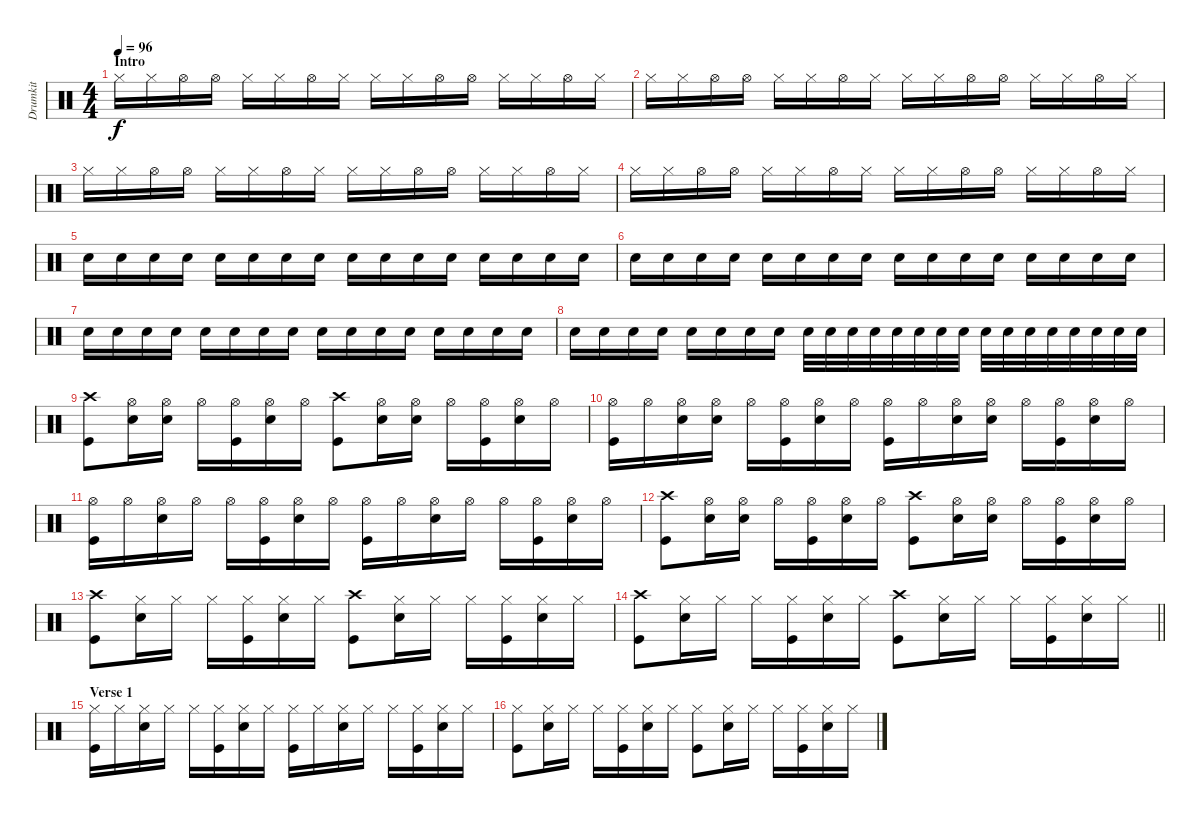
\track ("Drumkit" "Drumkit") {instrument percussion}
\staff {score}
\articulation defaults
\ts (4 4)
\section ("" "Intro")
\tempo 96
\clef neutral
\ks c "Hi-Hat (closed)".16{dy f} "Hi-Hat (closed)".16 "Hi-Hat (open)".16 "Hi-Hat (open)".16 "Hi-Hat (closed)".16 "Hi-Hat (closed)".16 "Hi-Hat (open)".16 "Hi-Hat (closed)".16 "Hi-Hat (closed)".16 "Hi-Hat (closed)".16 "Hi-Hat (open)".16 "Hi-Hat (open)".16 "Hi-Hat (closed)".16 "Hi-Hat (closed)".16 "Hi-Hat (open)".16 "Hi-Hat (closed)".16
|
"Hi-Hat (closed)".16 "Hi-Hat (closed)".16 "Hi-Hat (open)".16 "Hi-Hat (open)".16 "Hi-Hat (closed)".16 "Hi-Hat (closed)".16 "Hi-Hat (open)".16 "Hi-Hat (closed)".16 "Hi-Hat (closed)".16 "Hi-Hat (closed)".16 "Hi-Hat (open)".16 "Hi-Hat (open)".16 "Hi-Hat (closed)".16 "Hi-Hat (closed)".16 "Hi-Hat (open)".16 "Hi-Hat (closed)".16 |
"Hi-Hat (closed)".16 "Hi-Hat (closed)".16 "Hi-Hat (open)".16 "Hi-Hat (open)".16 "Hi-Hat (closed)".16 "Hi-Hat (closed)".16 "Hi-Hat (open)".16 "Hi-Hat (closed)".16 "Hi-Hat (closed)".16 "Hi-Hat (closed)".16 "Hi-Hat (open)".16 "Hi-Hat (open)".16 "Hi-Hat (closed)".16 "Hi-Hat (closed)".16 "Hi-Hat (open)".16 "Hi-Hat (closed)".16 |
"Hi-Hat (closed)".16 "Hi-Hat (closed)".16 "Hi-Hat (open)".16 "Hi-Hat (open)".16 "Hi-Hat (closed)".16 "Hi-Hat (closed)".16 "Hi-Hat (open)".16 "Hi-Hat (closed)".16 "Hi-Hat (closed)".16 "Hi-Hat (closed)".16 "Hi-Hat (open)".16 "Hi-Hat (open)".16 "Hi-Hat (closed)".16 "Hi-Hat (closed)".16 "Hi-Hat (open)".16 "Hi-Hat (closed)".16 |
"Snare (hit) 2".16 "Snare (hit) 2".16 "Snare (hit) 2".16 "Snare (hit) 2".16 "Snare (hit) 2".16 "Snare (hit) 2".16 "Snare (hit) 2".16 "Snare (hit) 2".16 "Snare (hit) 2".16 "Snare (hit) 2".16 "Snare (hit) 2".16 "Snare (hit) 2".16 "Snare (hit) 2".16 "Snare (hit) 2".16 "Snare (hit) 2".16 "Snare (hit) 2".16 |
"Snare (hit) 2".16 "Snare (hit) 2".16 "Snare (hit) 2".16 "Snare (hit) 2".16 "Snare (hit) 2".16 "Snare (hit) 2".16 "Snare (hit) 2".16 "Snare (hit) 2".16 "Snare (hit) 2".16 "Snare (hit) 2".16 "Snare (hit) 2".16 "Snare (hit) 2".16 "Snare (hit) 2".16 "Snare (hit) 2".16 "Snare (hit) 2".16 "Snare (hit) 2".16 |
"Snare (hit) 2".16 "Snare (hit) 2".16 "Snare (hit) 2".16 "Snare (hit) 2".16 "Snare (hit) 2".16 "Snare (hit) 2".16 "Snare (hit) 2".16 "Snare (hit) 2".16 "Snare (hit) 2".16 "Snare (hit) 2".16 "Snare (hit) 2".16 "Snare (hit) 2".16 "Snare (hit) 2".16 "Snare (hit) 2".16 "Snare (hit) 2".16 "Snare (hit) 2".16 |
"Snare (hit) 2".16 "Snare (hit) 2".16 "Snare (hit) 2".16 "Snare (hit) 2".16 "Snare (hit) 2".16 "Snare (hit) 2".16 "Snare (hit) 2".16 "Snare (hit) 2".16 "Snare (hit) 2".32 "Snare (hit) 2".32 "Snare (hit) 2".32 "Snare (hit) 2".32 "Snare (hit) 2".32 "Snare (hit) 2".32 "Snare (hit) 2".32 "Snare (hit) 2".32 "Snare (hit) 2".32 "Snare (hit) 2".32 "Snare (hit) 2".32 "Snare (hit) 2".32 "Snare (hit) 2".32 "Snare (hit) 2".32 "Snare (hit) 2".32 "Snare (hit) 2".32 |
("Crash high (hit)" "Kick (hit)").8 ("Hi-Hat (open)" "Snare (hit) 2").16 ("Hi-Hat (open)" "Snare (hit) 2").16 "Hi-Hat (open)".16 ("Hi-Hat (open)" "Kick (hit)").16 ("Hi-Hat (open)" "Snare (hit) 2").16 "Hi-Hat (open)".16 ("Crash high (hit)" "Kick (hit)").8 ("Hi-Hat (open)" "Snare (hit) 2").16 ("Hi-Hat (open)" "Snare (hit) 2").16 "Hi-Hat (open)".16 ("Hi-Hat (open)" "Kick (hit)").16 ("Hi-Hat (open)" "Snare (hit) 2").16 "Hi-Hat (open)".16 |
("Hi-Hat (open)" "Kick (hit)").16 "Hi-Hat (open)".16 ("Hi-Hat (open)" "Snare (hit) 2").16 ("Hi-Hat (open)" "Snare (hit) 2").16 "Hi-Hat (open)".16 ("Hi-Hat (open)" "Kick (hit)").16 ("Hi-Hat (open)" "Snare (hit) 2").16 "Hi-Hat (open)".16 ("Hi-Hat (open)" "Kick (hit)").16 "Hi-Hat (open)".16 ("Hi-Hat (open)" "Snare (hit) 2").16 ("Hi-Hat (open)" "Snare (hit) 2").16 "Hi-Hat (open)".16 ("Hi-Hat (open)" "Kick (hit)").16 ("Hi-Hat (open)" "Snare (hit) 2").16 "Hi-Hat (open)".16 |
("Hi-Hat (open)" "Kick (hit)").16 "Hi-Hat (open)".16 ("Hi-Hat (open)" "Snare (hit) 2").16 "Hi-Hat (open)".16 "Hi-Hat (open)".16 ("Hi-Hat (open)" "Kick (hit)").16 ("Hi-Hat (open)" "Snare (hit) 2").16 "Hi-Hat (open)".16 ("Hi-Hat (open)" "Kick (hit)").16 "Hi-Hat (open)".16 ("Hi-Hat (open)" "Snare (hit) 2").16 "Hi-Hat (open)".16 "Hi-Hat (open)".16 ("Hi-Hat (open)" "Kick (hit)").16 ("Hi-Hat (open)" "Snare (hit) 2").16 "Hi-Hat (open)".16 |
("Crash high (hit)" "Kick (hit)").8 ("Hi-Hat (open)" "Snare (hit) 2").16 ("Hi-Hat (open)" "Snare (hit) 2").16 "Hi-Hat (open)".16 ("Hi-Hat (open)" "Kick (hit)").16 ("Hi-Hat (open)" "Snare (hit) 2").16 "Hi-Hat (open)".16 ("Crash high (hit)" "Kick (hit)").8 ("Hi-Hat (open)" "Snare (hit) 2").16 ("Hi-Hat (open)" "Snare (hit) 2").16 "Hi-Hat (open)".16 ("Hi-Hat (open)" "Kick (hit)").16 ("Hi-Hat (open)" "Snare (hit) 2").16 "Hi-Hat (open)".16 |
("Crash high (hit)" "Kick (hit)").8 ("Hi-Hat (closed)" "Snare (hit) 2").16 "Hi-Hat (closed)".16 "Hi-Hat (closed)".16 ("Hi-Hat (closed)" "Kick (hit)").16 ("Hi-Hat (closed)" "Snare (hit) 2").16 "Hi-Hat (closed)".16 ("Crash high (hit)" "Kick (hit)").8 ("Hi-Hat (closed)" "Snare (hit) 2").16 "Hi-Hat (closed)".16 "Hi-Hat (closed)".16 ("Hi-Hat (closed)" "Kick (hit)").16 ("Hi-Hat (closed)" "Snare (hit) 2").16 "Hi-Hat (closed)".16 |
\barLineRight lightlight
("Crash high (hit)" "Kick (hit)").8 ("Hi-Hat (closed)" "Snare (hit) 2").16 "Hi-Hat (closed)".16 "Hi-Hat (closed)".16 ("Hi-Hat (closed)" "Kick (hit)").16 ("Hi-Hat (closed)" "Snare (hit) 2").16 "Hi-Hat (closed)".16 ("Crash high (hit)" "Kick (hit)").8 ("Hi-Hat (closed)" "Snare (hit) 2").16 "Hi-Hat (closed)".16 "Hi-Hat (closed)".16 ("Hi-Hat (closed)" "Kick (hit)").16 ("Hi-Hat (closed)" "Snare (hit) 2").16 "Hi-Hat (closed)".16 |
\section ("" "Verse 1")
("Hi-Hat (closed)" "Kick (hit)").16 "Hi-Hat (closed)".16 ("Hi-Hat (closed)" "Snare (hit) 2").16 "Hi-Hat (closed)".16 "Hi-Hat (closed)".16 ("Hi-Hat (closed)" "Kick (hit)").16 ("Hi-Hat (closed)" "Snare (hit) 2").16 "Hi-Hat (closed)".16 ("Hi-Hat (closed)" "Kick (hit)").16 "Hi-Hat (closed)".16 ("Hi-Hat (closed)" "Snare (hit) 2").16 "Hi-Hat (closed)".16 "Hi-Hat (closed)".16 ("Hi-Hat (closed)" "Kick (hit)").16 ("Hi-Hat (closed)" "Snare (hit) 2").16 "Hi-Hat (closed)".16 |
("Hi-Hat (closed)" "Kick (hit)").8 ("Hi-Hat (closed)" "Snare (hit) 2").16 "Hi-Hat (closed)".16 "Hi-Hat (closed)".16 ("Hi-Hat (closed)" "Kick (hit)").16 ("Hi-Hat (closed)" "Snare (hit) 2").16 "Hi-Hat (closed)".16 ("Hi-Hat (closed)" "Kick (hit)").8 ("Hi-Hat (closed)" "Snare (hit) 2").16 "Hi-Hat (closed)".16 "Hi-Hat (closed)".16 ("Hi-Hat (closed)" "Kick (hit)").16 ("Hi-Hat (closed)" "Snare (hit) 2").16 "Hi-Hat (closed)".16
